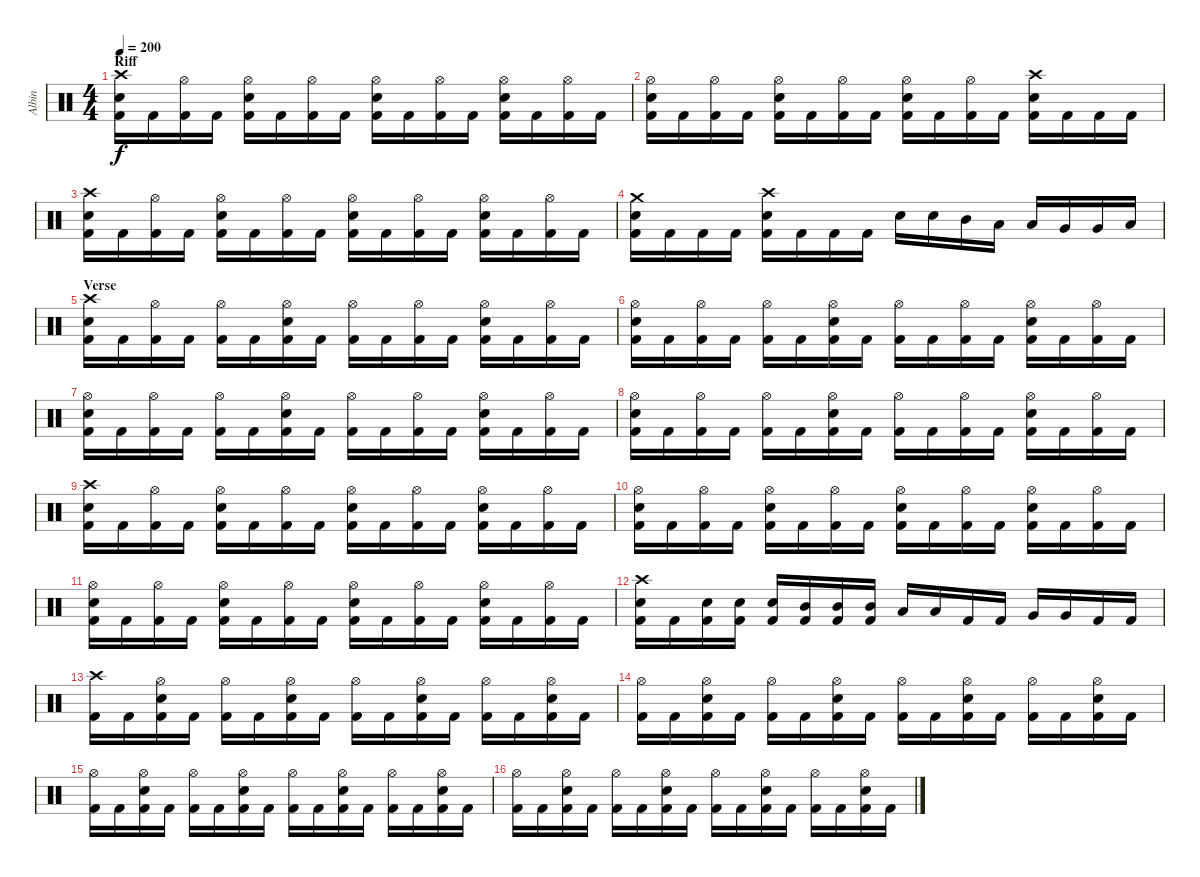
\track ("Albin" "Albin") {instrument percussion}
\staff {score}
\articulation defaults
\ts (4 4)
\section ("" "Riff")
\tempo 200
\clef neutral
\ks c
("Crash high (hit)" "Snare (hit) 2" "Kick (hit) 2").16{dy f} "Kick (hit) 2".16 ("Hi-Hat (open)" "Kick (hit) 2").16 "Kick (hit) 2".16 ("Hi-Hat (open)" "Snare (hit) 2" "Kick (hit) 2").16 "Kick (hit) 2".16 ("Hi-Hat (open)" "Kick (hit) 2").16 "Kick (hit) 2".16 ("Hi-Hat (open)" "Snare (hit) 2" "Kick (hit) 2").16 "Kick (hit) 2".16 ("Hi-Hat (open)" "Kick (hit) 2").16 "Kick (hit) 2".16 ("Hi-Hat (open)" "Snare (hit) 2" "Kick (hit) 2").16 "Kick (hit) 2".16 ("Hi-Hat (open)" "Kick (hit) 2").16 "Kick (hit) 2".16 |
("Hi-Hat (open)" "Snare (hit) 2" "Kick (hit) 2").16 "Kick (hit) 2".16 ("Hi-Hat (open)" "Kick (hit) 2").16 "Kick (hit) 2".16 ("Hi-Hat (open)" "Snare (hit) 2" "Kick (hit) 2").16 "Kick (hit) 2".16 ("Hi-Hat (open)" "Kick (hit) 2").16 "Kick (hit) 2".16 ("Hi-Hat (open)" "Snare (hit) 2" "Kick (hit) 2").16 "Kick (hit) 2".16 ("Hi-Hat (open)" "Kick (hit) 2").16 "Kick (hit) 2".16 ("Crash high (hit)" "Snare (hit) 2" "Kick (hit) 2").16 "Kick (hit) 2".16 "Kick (hit) 2".16 "Kick (hit) 2".16 |
("Crash high (hit)" "Snare (hit) 2" "Kick (hit) 2").16 "Kick (hit) 2".16 ("Hi-Hat (open)" "Kick (hit) 2").16 "Kick (hit) 2".16 ("Hi-Hat (open)" "Snare (hit) 2" "Kick (hit) 2").16 "Kick (hit) 2".16 ("Hi-Hat (open)" "Kick (hit) 2").16 "Kick (hit) 2".16 ("Hi-Hat (open)" "Snare (hit) 2" "Kick (hit) 2").16 "Kick (hit) 2".16 ("Hi-Hat (open)" "Kick (hit) 2").16 "Kick (hit) 2".16 ("Hi-Hat (open)" "Snare (hit) 2" "Kick (hit) 2").16 "Kick (hit) 2".16 ("Hi-Hat (open)" "Kick (hit) 2").16 "Kick (hit) 2".16 |
("Crash medium (hit)" "Snare (hit) 2" "Kick (hit) 2").16 "Kick (hit) 2".16 "Kick (hit) 2".16 "Kick (hit) 2".16 ("Crash high (hit)" "Snare (hit) 2" "Kick (hit) 2").16 "Kick (hit) 2".16 "Kick (hit) 2".16 "Kick (hit) 2".16 "Snare (hit) 2".16 "Snare (hit) 2".16 "Mid Tom (hit)".16 "Low Tom (hit)".16 "Low Tom (hit)".16 "Very Low Tom (hit)".16 "Very Low Tom (hit)".16 "Low Floor Tom (hit)".16 |
\section ("" "Verse")
("Crash high (hit)" "Snare (hit) 2" "Kick (hit) 2").16 "Kick (hit) 2".16 ("Hi-Hat (open)" "Kick (hit) 2").16 "Kick (hit) 2".16 ("Hi-Hat (open)" "Kick (hit) 2").16 "Kick (hit) 2".16 ("Hi-Hat (open)" "Snare (hit) 2" "Kick (hit) 2").16 "Kick (hit) 2".16 ("Hi-Hat (open)" "Kick (hit) 2").16 "Kick (hit) 2".16 ("Hi-Hat (open)" "Kick (hit) 2").16 "Kick (hit) 2".16 ("Hi-Hat (open)" "Snare (hit) 2" "Kick (hit) 2").16 "Kick (hit) 2".16 ("Hi-Hat (open)" "Kick (hit) 2").16 "Kick (hit) 2".16 |
("Hi-Hat (open)" "Snare (hit) 2" "Kick (hit) 2").16 "Kick (hit) 2".16 ("Hi-Hat (open)" "Kick (hit) 2").16 "Kick (hit) 2".16 ("Hi-Hat (open)" "Kick (hit) 2").16 "Kick (hit) 2".16 ("Hi-Hat (open)" "Snare (hit) 2" "Kick (hit) 2").16 "Kick (hit) 2".16 ("Hi-Hat (open)" "Kick (hit) 2").16 "Kick (hit) 2".16 ("Hi-Hat (open)" "Kick (hit) 2").16 "Kick (hit) 2".16 ("Hi-Hat (open)" "Snare (hit) 2" "Kick (hit) 2").16 "Kick (hit) 2".16 ("Hi-Hat (open)" "Kick (hit) 2").16 "Kick (hit) 2".16 |
("Hi-Hat (open)" "Snare (hit) 2" "Kick (hit) 2").16 "Kick (hit) 2".16 ("Hi-Hat (open)" "Kick (hit) 2").16 "Kick (hit) 2".16 ("Hi-Hat (open)" "Kick (hit) 2").16 "Kick (hit) 2".16 ("Hi-Hat (open)" "Snare (hit) 2" "Kick (hit) 2").16 "Kick (hit) 2".16 ("Hi-Hat (open)" "Kick (hit) 2").16 "Kick (hit) 2".16 ("Hi-Hat (open)" "Kick (hit) 2").16 "Kick (hit) 2".16 ("Hi-Hat (open)" "Snare (hit) 2" "Kick (hit) 2").16 "Kick (hit) 2".16 ("Hi-Hat (open)" "Kick (hit) 2").16 "Kick (hit) 2".16 |
("Hi-Hat (open)" "Snare (hit) 2" "Kick (hit) 2").16 "Kick (hit) 2".16 ("Hi-Hat (open)" "Kick (hit) 2").16 "Kick (hit) 2".16 ("Hi-Hat (open)" "Kick (hit) 2").16 "Kick (hit) 2".16 ("Hi-Hat (open)" "Snare (hit) 2" "Kick (hit) 2").16 "Kick (hit) 2".16 ("Hi-Hat (open)" "Kick (hit) 2").16 "Kick (hit) 2".16 ("Hi-Hat (open)" "Kick (hit) 2").16 "Kick (hit) 2".16 ("Hi-Hat (open)" "Snare (hit) 2" "Kick (hit) 2").16 "Kick (hit) 2".16 ("Hi-Hat (open)" "Kick (hit) 2").16 "Kick (hit) 2".16 |
("Crash high (hit)" "Snare (hit) 2" "Kick (hit) 2").16 "Kick (hit) 2".16 ("Hi-Hat (open)" "Kick (hit) 2").16 "Kick (hit) 2".16 ("Hi-Hat (open)" "Snare (hit) 2" "Kick (hit) 2").16 "Kick (hit) 2".16 ("Hi-Hat (open)" "Kick (hit) 2").16 "Kick (hit) 2".16 ("Hi-Hat (open)" "Snare (hit) 2" "Kick (hit) 2").16 "Kick (hit) 2".16 ("Hi-Hat (open)" "Kick (hit) 2").16 "Kick (hit) 2".16 ("Hi-Hat (open)" "Snare (hit) 2" "Kick (hit) 2").16 "Kick (hit) 2".16 ("Hi-Hat (open)" "Kick (hit) 2").16 "Kick (hit) 2".16 |
("Hi-Hat (open)" "Snare (hit) 2" "Kick (hit) 2").16 "Kick (hit) 2".16 ("Hi-Hat (open)" "Kick (hit) 2").16 "Kick (hit) 2".16 ("Hi-Hat (open)" "Snare (hit) 2" "Kick (hit) 2").16 "Kick (hit) 2".16 ("Hi-Hat (open)" "Kick (hit) 2").16 "Kick (hit) 2".16 ("Hi-Hat (open)" "Snare (hit) 2" "Kick (hit) 2").16 "Kick (hit) 2".16 ("Hi-Hat (open)" "Kick (hit) 2").16 "Kick (hit) 2".16 ("Hi-Hat (open)" "Snare (hit) 2" "Kick (hit) 2").16 "Kick (hit) 2".16 ("Hi-Hat (open)" "Kick (hit) 2").16 "Kick (hit) 2".16 |
("Hi-Hat (open)" "Snare (hit) 2" "Kick (hit) 2").16 "Kick (hit) 2".16 ("Hi-Hat (open)" "Kick (hit) 2").16 "Kick (hit) 2".16 ("Hi-Hat (open)" "Snare (hit) 2" "Kick (hit) 2").16 "Kick (hit) 2".16 ("Hi-Hat (open)" "Kick (hit) 2").16 "Kick (hit) 2".16 ("Hi-Hat (open)" "Snare (hit) 2" "Kick (hit) 2").16 "Kick (hit) 2".16 ("Hi-Hat (open)" "Kick (hit) 2").16 "Kick (hit) 2".16 ("Hi-Hat (open)" "Snare (hit) 2" "Kick (hit) 2").16 "Kick (hit) 2".16 ("Hi-Hat (open)" "Kick (hit) 2").16 "Kick (hit) 2".16 |
("Crash high (hit)" "Snare (hit) 2" "Kick (hit) 2").16 "Kick (hit) 2".16 ("Snare (hit) 2" "Kick (hit) 2").16 ("Snare (hit) 2" "Kick (hit) 2").16 ("Snare (hit) 2" "Kick (hit) 2").16 ("Mid Tom (hit)" "Kick (hit) 2").16 ("Mid Tom (hit)" "Kick (hit) 2").16 ("Mid Tom (hit)" "Kick (hit) 2").16 "Low Tom (hit)".16 "Low Tom (hit)".16 "Kick (hit) 2".16 "Kick (hit) 2".16 "Very Low Tom (hit)".16 "Very Low Tom (hit)".16 "Kick (hit) 2".16 "Kick (hit) 2".16 |
\section ("" "")
("Crash high (hit)" "Kick (hit) 2").16 "Kick (hit) 2".16 ("Hi-Hat (open)" "Snare (hit) 2" "Kick (hit) 2").16 "Kick (hit) 2".16 ("Hi-Hat (open)" "Kick (hit) 2").16 "Kick (hit) 2".16 ("Hi-Hat (open)" "Snare (hit) 2" "Kick (hit) 2").16 "Kick (hit) 2".16 ("Hi-Hat (open)" "Kick (hit) 2").16 "Kick (hit) 2".16 ("Hi-Hat (open)" "Snare (hit) 2" "Kick (hit) 2").16 "Kick (hit) 2".16 ("Hi-Hat (open)" "Kick (hit) 2").16 "Kick (hit) 2".16 ("Hi-Hat (open)" "Snare (hit) 2" "Kick (hit) 2").16 "Kick (hit) 2".16 |
("Hi-Hat (open)" "Kick (hit) 2").16 "Kick (hit) 2".16 ("Hi-Hat (open)" "Snare (hit) 2" "Kick (hit) 2").16 "Kick (hit) 2".16 ("Hi-Hat (open)" "Kick (hit) 2").16 "Kick (hit) 2".16 ("Hi-Hat (open)" "Snare (hit) 2" "Kick (hit) 2").16 "Kick (hit) 2".16 ("Hi-Hat (open)" "Kick (hit) 2").16 "Kick (hit) 2".16 ("Hi-Hat (open)" "Snare (hit) 2" "Kick (hit) 2").16 "Kick (hit) 2".16 ("Hi-Hat (open)" "Kick (hit) 2").16 "Kick (hit) 2".16 ("Hi-Hat (open)" "Snare (hit) 2" "Kick (hit) 2").16 "Kick (hit) 2".16 |
("Hi-Hat (open)" "Kick (hit) 2").16 "Kick (hit) 2".16 ("Hi-Hat (open)" "Snare (hit) 2" "Kick (hit) 2").16 "Kick (hit) 2".16 ("Hi-Hat (open)" "Kick (hit) 2").16 "Kick (hit) 2".16 ("Hi-Hat (open)" "Snare (hit) 2" "Kick (hit) 2").16 "Kick (hit) 2".16 ("Hi-Hat (open)" "Kick (hit) 2").16 "Kick (hit) 2".16 ("Hi-Hat (open)" "Snare (hit) 2" "Kick (hit) 2").16 "Kick (hit) 2".16 ("Hi-Hat (open)" "Kick (hit) 2").16 "Kick (hit) 2".16 ("Hi-Hat (open)" "Snare (hit) 2" "Kick (hit) 2").16 "Kick (hit) 2".16 |
("Hi-Hat (open)" "Kick (hit) 2").16 "Kick (hit) 2".16 ("Hi-Hat (open)" "Snare (hit) 2" "Kick (hit) 2").16 "Kick (hit) 2".16 ("Hi-Hat (open)" "Kick (hit) 2").16 "Kick (hit) 2".16 ("Hi-Hat (open)" "Snare (hit) 2" "Kick (hit) 2").16 "Kick (hit) 2".16 ("Hi-Hat (open)" "Kick (hit) 2").16 "Kick (hit) 2".16 ("Hi-Hat (open)" "Snare (hit) 2" "Kick (hit) 2").16 "Kick (hit) 2".16 ("Hi-Hat (open)" "Kick (hit) 2").16 "Kick (hit) 2".16 ("Hi-Hat (open)" "Snare (hit) 2" "Kick (hit) 2").16 "Kick (hit) 2".16
